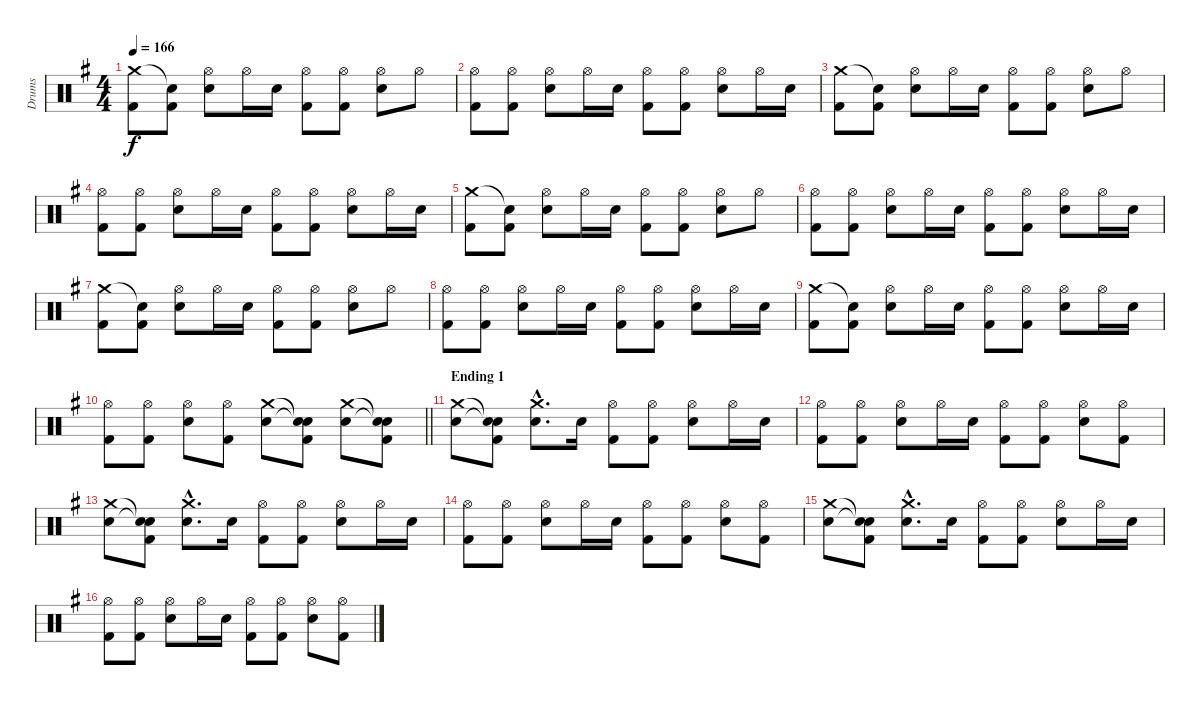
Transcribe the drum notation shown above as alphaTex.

\track ("Drums" "Drums") {instrument percussion}
\staff {score}
\articulation defaults
\ts (4 4)
\tempo 166
\clef neutral
\ks g
("Crash medium (hit)" "Kick (hit) 2").8{dy f} ("Snare (hit)"{t} "Kick (hit) 2").8 ("Hi-Hat (open)" "Electric Snare (hit)").8 "Hi-Hat (open)".16 "Electric Snare (hit)".16 ("Hi-Hat (open)" "Kick (hit) 2").8 ("Hi-Hat (open)" "Kick (hit) 2").8 ("Hi-Hat (open)" "Electric Snare (hit)").8 "Hi-Hat (open)".8 |
("Hi-Hat (open)" "Kick (hit) 2").8 ("Hi-Hat (open)" "Kick (hit) 2").8 ("Hi-Hat (open)" "Electric Snare (hit)").8 "Hi-Hat (open)".16 "Electric Snare (hit)".16 ("Hi-Hat (open)" "Kick (hit) 2").8 ("Hi-Hat (open)" "Kick (hit) 2").8 ("Hi-Hat (open)" "Electric Snare (hit)").8 "Hi-Hat (open)".16 "Electric Snare (hit)".16 |
("Crash medium (hit)" "Kick (hit) 2").8 ("Snare (hit)"{t} "Kick (hit) 2").8 ("Hi-Hat (open)" "Electric Snare (hit)").8 "Hi-Hat (open)".16 "Electric Snare (hit)".16 ("Hi-Hat (open)" "Kick (hit) 2").8 ("Hi-Hat (open)" "Kick (hit) 2").8 ("Hi-Hat (open)" "Electric Snare (hit)").8 "Hi-Hat (open)".8 |
("Hi-Hat (open)" "Kick (hit) 2").8 ("Hi-Hat (open)" "Kick (hit) 2").8 ("Hi-Hat (open)" "Electric Snare (hit)").8 "Hi-Hat (open)".16 "Electric Snare (hit)".16 ("Hi-Hat (open)" "Kick (hit) 2").8 ("Hi-Hat (open)" "Kick (hit) 2").8 ("Hi-Hat (open)" "Electric Snare (hit)").8 "Hi-Hat (open)".16 "Electric Snare (hit)".16 |
("Crash medium (hit)" "Kick (hit) 2").8 ("Snare (hit)"{t} "Kick (hit) 2").8 ("Hi-Hat (open)" "Electric Snare (hit)").8 "Hi-Hat (open)".16 "Electric Snare (hit)".16 ("Hi-Hat (open)" "Kick (hit) 2").8 ("Hi-Hat (open)" "Kick (hit) 2").8 ("Hi-Hat (open)" "Electric Snare (hit)").8 "Hi-Hat (open)".8 |
("Hi-Hat (open)" "Kick (hit) 2").8 ("Hi-Hat (open)" "Kick (hit) 2").8 ("Hi-Hat (open)" "Electric Snare (hit)").8 "Hi-Hat (open)".16 "Electric Snare (hit)".16 ("Hi-Hat (open)" "Kick (hit) 2").8 ("Hi-Hat (open)" "Kick (hit) 2").8 ("Hi-Hat (open)" "Electric Snare (hit)").8 "Hi-Hat (open)".16 "Electric Snare (hit)".16 |
("Crash medium (hit)" "Kick (hit) 2").8 ("Snare (hit)"{t} "Kick (hit) 2").8 ("Hi-Hat (open)" "Electric Snare (hit)").8 "Hi-Hat (open)".16 "Electric Snare (hit)".16 ("Hi-Hat (open)" "Kick (hit) 2").8 ("Hi-Hat (open)" "Kick (hit) 2").8 ("Hi-Hat (open)" "Electric Snare (hit)").8 "Hi-Hat (open)".8 |
("Hi-Hat (open)" "Kick (hit) 2").8 ("Hi-Hat (open)" "Kick (hit) 2").8 ("Hi-Hat (open)" "Electric Snare (hit)").8 "Hi-Hat (open)".16 "Electric Snare (hit)".16 ("Hi-Hat (open)" "Kick (hit) 2").8 ("Hi-Hat (open)" "Kick (hit) 2").8 ("Hi-Hat (open)" "Electric Snare (hit)").8 "Hi-Hat (open)".16 "Electric Snare (hit)".16 |
("Crash medium (hit)" "Kick (hit) 2").8 ("Snare (hit)"{t} "Kick (hit) 2").8 ("Hi-Hat (open)" "Electric Snare (hit)").8 "Hi-Hat (open)".16 "Electric Snare (hit)".16 ("Hi-Hat (open)" "Kick (hit) 2").8 ("Hi-Hat (open)" "Kick (hit) 2").8 ("Hi-Hat (open)" "Electric Snare (hit)").8 "Hi-Hat (open)".16 "Electric Snare (hit)".16 |
\barLineRight lightlight
("Hi-Hat (open)" "Kick (hit) 2").8 ("Hi-Hat (open)" "Kick (hit) 2").8 ("Hi-Hat (open)" "Electric Snare (hit)").8 ("Hi-Hat (open)" "Kick (hit) 2").8 ("Crash medium (hit)" "Electric Snare (hit)").8 ("Snare (hit)"{t} "Snare (hit)"{t} "Kick (hit) 2").8 ("Crash medium (hit)" "Electric Snare (hit)").8 ("Snare (hit)"{t} "Snare (hit)"{t} "Kick (hit) 2").8 |
\section ("" "Ending 1")
("Crash medium (hit)" "Electric Snare (hit)").8 ("Snare (hit)"{t} "Snare (hit)"{t} "Kick (hit) 2").8 ("Crash medium (hit)"{hac} "Electric Snare (hit)"{hac}).8{d} "Electric Snare (hit)".16 ("Hi-Hat (open)" "Kick (hit) 2").8 ("Hi-Hat (open)" "Kick (hit) 2").8 ("Hi-Hat (open)" "Electric Snare (hit)").8 "Hi-Hat (open)".16 "Electric Snare (hit)".16 |
("Hi-Hat (open)" "Kick (hit) 2").8 ("Hi-Hat (open)" "Kick (hit) 2").8 ("Hi-Hat (open)" "Electric Snare (hit)").8 "Hi-Hat (open)".16 "Electric Snare (hit)".16 ("Hi-Hat (open)" "Kick (hit) 2").8 ("Hi-Hat (open)" "Kick (hit) 2").8 ("Hi-Hat (open)" "Electric Snare (hit)").8 ("Hi-Hat (open)" "Kick (hit) 2").8 |
("Crash medium (hit)" "Electric Snare (hit)").8 ("Snare (hit)"{t} "Snare (hit)"{t} "Kick (hit) 2").8 ("Crash medium (hit)"{hac} "Electric Snare (hit)"{hac}).8{d} "Electric Snare (hit)".16 ("Hi-Hat (open)" "Kick (hit) 2").8 ("Hi-Hat (open)" "Kick (hit) 2").8 ("Hi-Hat (open)" "Electric Snare (hit)").8 "Hi-Hat (open)".16 "Electric Snare (hit)".16 |
("Hi-Hat (open)" "Kick (hit) 2").8 ("Hi-Hat (open)" "Kick (hit) 2").8 ("Hi-Hat (open)" "Electric Snare (hit)").8 "Hi-Hat (open)".16 "Electric Snare (hit)".16 ("Hi-Hat (open)" "Kick (hit) 2").8 ("Hi-Hat (open)" "Kick (hit) 2").8 ("Hi-Hat (open)" "Electric Snare (hit)").8 ("Hi-Hat (open)" "Kick (hit) 2").8 |
("Crash medium (hit)" "Electric Snare (hit)").8 ("Snare (hit)"{t} "Snare (hit)"{t} "Kick (hit) 2").8 ("Crash medium (hit)"{hac} "Electric Snare (hit)"{hac}).8{d} "Electric Snare (hit)".16 ("Hi-Hat (open)" "Kick (hit) 2").8 ("Hi-Hat (open)" "Kick (hit) 2").8 ("Hi-Hat (open)" "Electric Snare (hit)").8 "Hi-Hat (open)".16 "Electric Snare (hit)".16 |
("Hi-Hat (open)" "Kick (hit) 2").8 ("Hi-Hat (open)" "Kick (hit) 2").8 ("Hi-Hat (open)" "Electric Snare (hit)").8 "Hi-Hat (open)".16 "Electric Snare (hit)".16 ("Hi-Hat (open)" "Kick (hit) 2").8 ("Hi-Hat (open)" "Kick (hit) 2").8 ("Hi-Hat (open)" "Electric Snare (hit)").8 ("Hi-Hat (open)" "Kick (hit) 2").8
